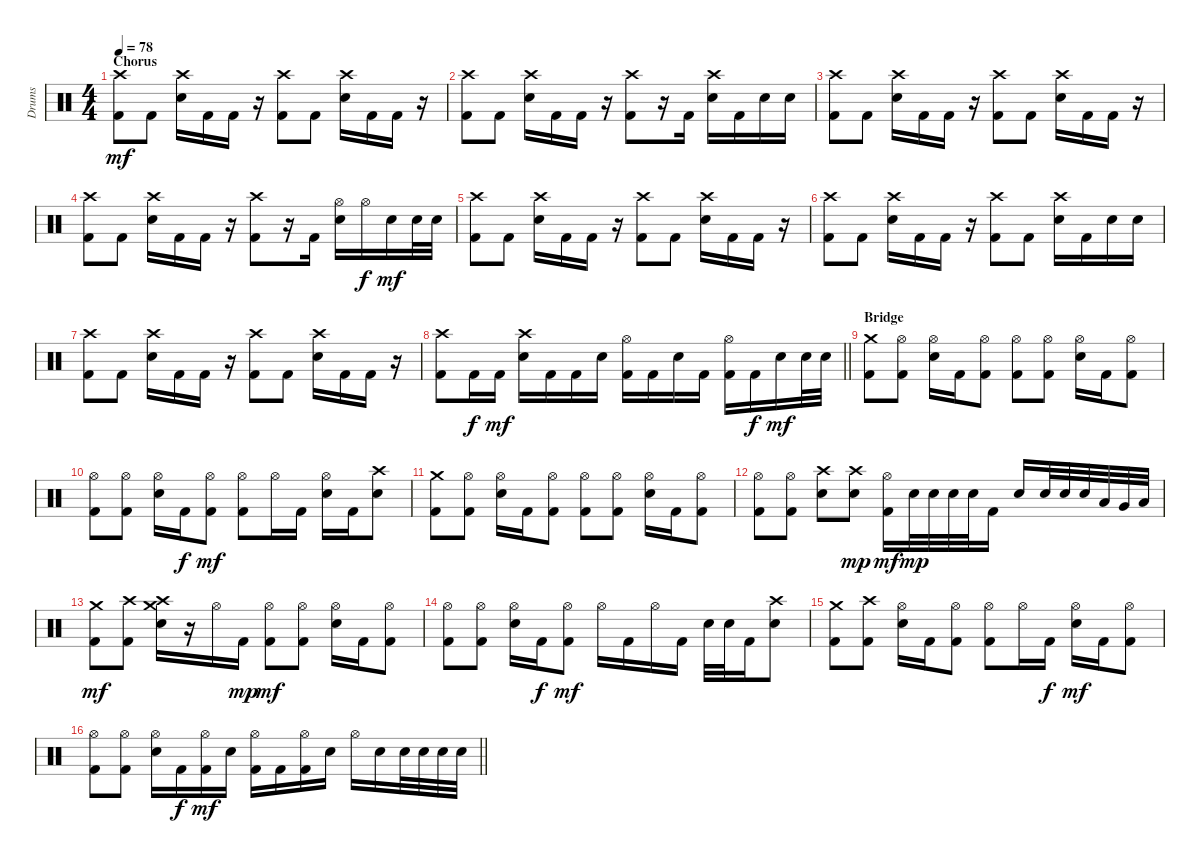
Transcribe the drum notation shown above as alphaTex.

\track ("Drums" "Drums") {instrument percussion}
\staff {score}
\articulation defaults
\ts (4 4)
\section ("" "Chorus")
\tempo 78
\clef neutral
\ks c
("Crash high (hit)" "Kick (hit) 2").8{dy mf} "Kick (hit) 2".8 ("Crash high (hit)" "Electric Snare (hit)").16 "Kick (hit) 2".16 "Kick (hit) 2".16 r.16 ("Crash high (hit)" "Kick (hit) 2").8 "Kick (hit) 2".8 ("Crash high (hit)" "Electric Snare (hit)").16 "Kick (hit) 2".16 "Kick (hit) 2".16 r.16 |
("Crash high (hit)" "Kick (hit) 2").8 "Kick (hit) 2".8 ("Crash high (hit)" "Electric Snare (hit)").16 "Kick (hit) 2".16 "Kick (hit) 2".16 r.16 ("Crash high (hit)" "Kick (hit) 2").8 r.16 "Kick (hit) 2".16 ("Crash high (hit)" "Electric Snare (hit)").16 "Kick (hit) 2".16 "Electric Snare (hit)".16 "Electric Snare (hit)".16 |
("Crash high (hit)" "Kick (hit) 2").8 "Kick (hit) 2".8 ("Crash high (hit)" "Electric Snare (hit)").16 "Kick (hit) 2".16 "Kick (hit) 2".16 r.16 ("Crash high (hit)" "Kick (hit) 2").8 "Kick (hit) 2".8 ("Crash high (hit)" "Electric Snare (hit)").16 "Kick (hit) 2".16 "Kick (hit) 2".16 r.16 |
("Crash high (hit)" "Kick (hit) 2").8 "Kick (hit) 2".8 ("Crash high (hit)" "Electric Snare (hit)").16 "Kick (hit) 2".16 "Kick (hit) 2".16 r.16 ("Crash high (hit)" "Kick (hit) 2").8 r.16 "Kick (hit) 2".16 ("Hi-Hat (open)" "Electric Snare (hit)").16 "Hi-Hat (open)".16{dy f} "Electric Snare (hit)".16{dy mf} "Electric Snare (hit)".32 "Electric Snare (hit)".32 |
("Crash high (hit)" "Kick (hit) 2").8 "Kick (hit) 2".8 ("Crash high (hit)" "Electric Snare (hit)").16 "Kick (hit) 2".16 "Kick (hit) 2".16 r.16 ("Crash high (hit)" "Kick (hit) 2").8 "Kick (hit) 2".8 ("Crash high (hit)" "Electric Snare (hit)").16 "Kick (hit) 2".16 "Kick (hit) 2".16 r.16 |
("Crash high (hit)" "Kick (hit) 2").8 "Kick (hit) 2".8 ("Crash high (hit)" "Electric Snare (hit)").16 "Kick (hit) 2".16 "Kick (hit) 2".16 r.16 ("Crash high (hit)" "Kick (hit) 2").8 "Kick (hit) 2".8 ("Crash high (hit)" "Electric Snare (hit)").16 "Kick (hit) 2".16 "Electric Snare (hit)".16 "Electric Snare (hit)".16 |
("Crash high (hit)" "Kick (hit) 2").8 "Kick (hit) 2".8 ("Crash high (hit)" "Electric Snare (hit)").16 "Kick (hit) 2".16 "Kick (hit) 2".16 r.16 ("Crash high (hit)" "Kick (hit) 2").8 "Kick (hit) 2".8 ("Crash high (hit)" "Electric Snare (hit)").16 "Kick (hit) 2".16 "Kick (hit) 2".16 r.16 |
\barLineRight lightlight
("Crash high (hit)" "Kick (hit) 2").8 "Kick (hit) 2".16{dy f} "Kick (hit) 2".16{dy mf} ("Crash high (hit)" "Electric Snare (hit)").16 "Kick (hit) 2".16 "Kick (hit) 2".16 "Electric Snare (hit)".16 ("Hi-Hat (open)" "Kick (hit) 2").16 "Kick (hit) 2".16 "Electric Snare (hit)".16 "Kick (hit) 2".16 ("Hi-Hat (open)" "Kick (hit) 2").16 "Kick (hit) 2".16{dy f} "Electric Snare (hit)".16{dy mf} "Electric Snare (hit)".32 "Electric Snare (hit)".32 |
\section ("" "Bridge")
("Crash medium (hit)" "Kick (hit) 2").8 ("Hi-Hat (open)" "Kick (hit) 2").8 ("Hi-Hat (open)" "Electric Snare (hit)").16 "Kick (hit) 2".16 ("Hi-Hat (open)" "Kick (hit) 2").8 ("Hi-Hat (open)" "Kick (hit) 2").8 ("Hi-Hat (open)" "Kick (hit) 2").8 ("Hi-Hat (open)" "Electric Snare (hit)").16 "Kick (hit) 2".16 ("Hi-Hat (open)" "Kick (hit) 2").8 |
("Hi-Hat (open)" "Kick (hit) 2").8 ("Hi-Hat (open)" "Kick (hit) 2").8 ("Hi-Hat (open)" "Electric Snare (hit)").16 "Kick (hit) 2".16{dy f} ("Hi-Hat (open)" "Kick (hit) 2").8{dy mf} ("Hi-Hat (open)" "Kick (hit) 2").8 "Hi-Hat (open)".16 "Kick (hit) 2".16 ("Hi-Hat (open)" "Electric Snare (hit)").16 "Kick (hit) 2".16 ("Crash high (hit)" "Electric Snare (hit)").8 |
("Crash medium (hit)" "Kick (hit) 2").8 ("Hi-Hat (open)" "Kick (hit) 2").8 ("Hi-Hat (open)" "Electric Snare (hit)").16 "Kick (hit) 2".16 ("Hi-Hat (open)" "Kick (hit) 2").8 ("Hi-Hat (open)" "Kick (hit) 2").8 ("Hi-Hat (open)" "Kick (hit) 2").8 ("Hi-Hat (open)" "Electric Snare (hit)").16 "Kick (hit) 2".16 ("Hi-Hat (open)" "Kick (hit) 2").8 |
("Hi-Hat (open)" "Kick (hit) 2").8 ("Hi-Hat (open)" "Kick (hit) 2").8 ("Crash high (hit)" "Electric Snare (hit)").8 ("Crash high (hit)" "Electric Snare (hit)").8{dy mp} ("Hi-Hat (open)" "Kick (hit) 2").16{dy mf} "Electric Snare (hit)".32{dy mp} "Electric Snare (hit)".32 "Electric Snare (hit)".32 "Electric Snare (hit)".32 "Kick (hit) 2".16 "Electric Snare (hit)".16 "Electric Snare (hit)".32 "Electric Snare (hit)".32 "Electric Snare (hit)".32 "Low Tom (hit)".32 "Very Low Tom (hit)".32 "Low Floor Tom (hit)".32 |
("Crash medium (hit)" "Kick (hit) 2").8{dy mf} ("Crash high (hit)" "Kick (hit) 2").8 ("Crash high (hit)" "Crash medium (hit)" "Electric Snare (hit)").16 r.16 "Hi-Hat (open)".16 "Kick (hit) 2".16{dy mp} ("Hi-Hat (open)" "Kick (hit) 2").8{dy mf} ("Hi-Hat (open)" "Kick (hit) 2").8 ("Hi-Hat (open)" "Electric Snare (hit)").16 "Kick (hit) 2".16 ("Hi-Hat (open)" "Kick (hit) 2").8 |
("Hi-Hat (open)" "Kick (hit) 2").8 ("Hi-Hat (open)" "Kick (hit) 2").8 ("Hi-Hat (open)" "Electric Snare (hit)").16 "Kick (hit) 2".16{dy f} ("Hi-Hat (open)" "Kick (hit) 2").8{dy mf} "Hi-Hat (open)".16 "Kick (hit) 2".16 "Hi-Hat (open)".16 "Kick (hit) 2".16 "Electric Snare (hit)".32 "Electric Snare (hit)".32 "Kick (hit) 2".16 ("Crash high (hit)" "Electric Snare (hit)").8 |
("Crash medium (hit)" "Kick (hit) 2").8 ("Crash high (hit)" "Kick (hit) 2").8 ("Hi-Hat (open)" "Electric Snare (hit)").16 "Kick (hit) 2".16 ("Hi-Hat (open)" "Kick (hit) 2").8 ("Hi-Hat (open)" "Kick (hit) 2").8 "Hi-Hat (open)".16 "Kick (hit) 2".16{dy f} ("Hi-Hat (open)" "Electric Snare (hit)").16{dy mf} "Kick (hit) 2".16 ("Hi-Hat (open)" "Kick (hit) 2").8 |
\barLineRight lightlight
("Hi-Hat (open)" "Kick (hit) 2").8 ("Hi-Hat (open)" "Kick (hit) 2").8 ("Hi-Hat (open)" "Electric Snare (hit)").16 "Kick (hit) 2".16{dy f} ("Hi-Hat (open)" "Kick (hit) 2").16{dy mf} "Electric Snare (hit)".16 ("Hi-Hat (open)" "Kick (hit) 2").16 "Kick (hit) 2".16 ("Hi-Hat (open)" "Kick (hit) 2").16 "Electric Snare (hit)".16 "Hi-Hat (open)".16 "Electric Snare (hit)".16 "Electric Snare (hit)".32 "Electric Snare (hit)".32 "Electric Snare (hit)".32 "Electric Snare (hit)".32
